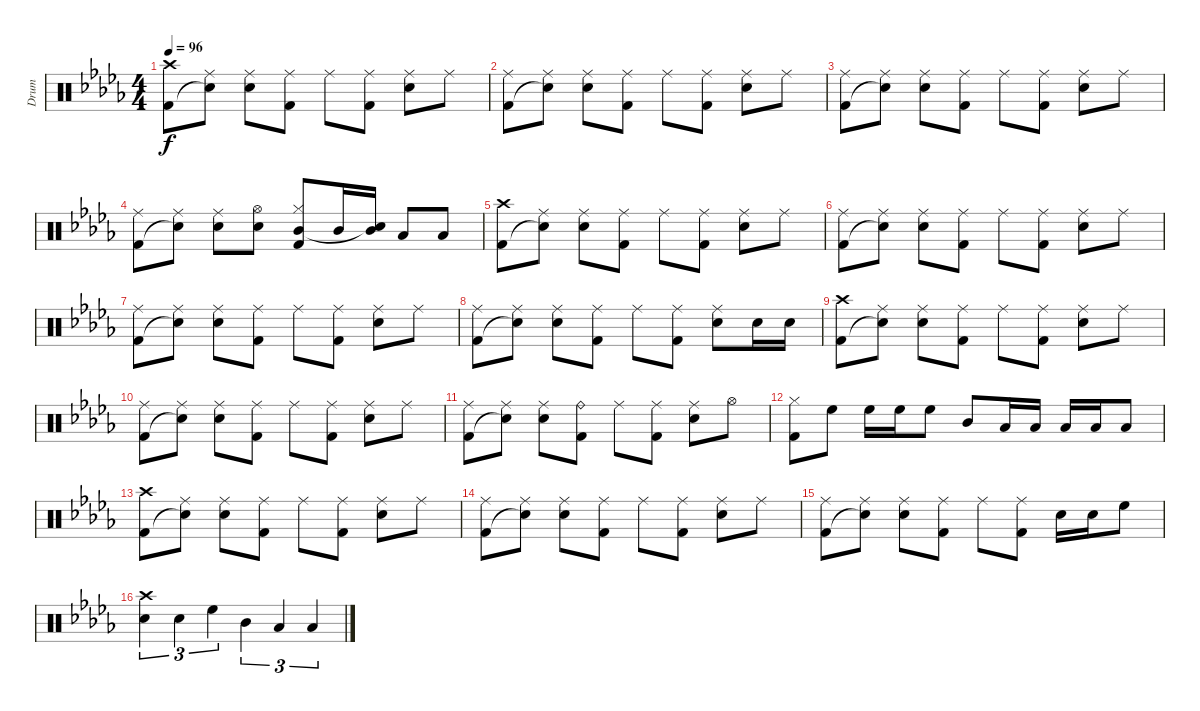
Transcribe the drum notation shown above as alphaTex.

\track ("Drum" "Drum") {instrument percussion}
\staff {score}
\articulation defaults
\ts (4 4)
\tempo 96
\clef neutral
\ks db
("Crash high (hit)" "Kick (hit) 2").8{dy f} ("Ride (middle)" "Snare (hit)"{t}).8 ("Ride (middle)" "Snare (hit) 2").8 ("Ride (middle)" "Kick (hit) 2").8 "Ride (middle)".8 ("Ride (middle)" "Kick (hit) 2").8 ("Ride (middle)" "Snare (hit) 2").8 "Ride (middle)".8 |
("Ride (middle)" "Kick (hit) 2").8 ("Ride (middle)" "Snare (hit)"{t}).8 ("Ride (middle)" "Snare (hit) 2").8 ("Ride (middle)" "Kick (hit) 2").8 "Ride (middle)".8 ("Ride (middle)" "Kick (hit) 2").8 ("Ride (middle)" "Snare (hit) 2").8 "Ride (middle)".8 |
("Ride (middle)" "Kick (hit) 2").8 ("Ride (middle)" "Snare (hit)"{t}).8 ("Ride (middle)" "Snare (hit) 2").8 ("Ride (middle)" "Kick (hit) 2").8 "Ride (middle)".8 ("Ride (middle)" "Kick (hit) 2").8 ("Ride (middle)" "Snare (hit) 2").8 "Ride (middle)".8 |
("Ride (middle)" "Kick (hit) 2").8 ("Ride (middle)" "Snare (hit)"{t}).8 ("Ride (middle)" "Snare (hit) 2").8 ("Hi-Hat (open)" "Snare (hit) 2").8 ("Hi-Hat (closed)" "Mid Tom (hit)" "Kick (hit) 2").8 "Mid Tom (hit)".16 ("Mid Tom (hit)" "Snare (hit)"{t}).16 "Low Tom (hit)".8 "Low Tom (hit)".8 |
("Crash high (hit)" "Kick (hit) 2").8 ("Ride (middle)" "Snare (hit)"{t}).8 ("Ride (middle)" "Snare (hit) 2").8 ("Ride (middle)" "Kick (hit) 2").8 "Ride (middle)".8 ("Ride (middle)" "Kick (hit) 2").8 ("Ride (middle)" "Snare (hit) 2").8 "Ride (middle)".8 |
("Ride (middle)" "Kick (hit) 2").8 ("Ride (middle)" "Snare (hit)"{t}).8 ("Ride (middle)" "Snare (hit) 2").8 ("Ride (middle)" "Kick (hit) 2").8 "Ride (middle)".8 ("Ride (middle)" "Kick (hit) 2").8 ("Ride (middle)" "Snare (hit) 2").8 "Ride (middle)".8 |
("Ride (middle)" "Kick (hit) 2").8 ("Ride (middle)" "Snare (hit)"{t}).8 ("Ride (middle)" "Snare (hit) 2").8 ("Ride (middle)" "Kick (hit) 2").8 "Ride (middle)".8 ("Ride (middle)" "Kick (hit) 2").8 ("Ride (middle)" "Snare (hit) 2").8 "Ride (middle)".8 |
("Ride (middle)" "Kick (hit) 2").8 ("Ride (middle)" "Snare (hit)"{t}).8 ("Ride (middle)" "Snare (hit) 2").8 ("Ride (middle)" "Kick (hit) 2").8 "Ride (middle)".8 ("Ride (middle)" "Kick (hit) 2").8 ("Ride (middle)" "Snare (hit) 2").8 "Snare (hit) 2".16 "Snare (hit) 2".16 |
("Crash high (hit)" "Kick (hit) 2").8 ("Ride (middle)" "Snare (hit)"{t}).8 ("Ride (middle)" "Snare (hit) 2").8 ("Ride (middle)" "Kick (hit) 2").8 "Ride (middle)".8 ("Ride (middle)" "Kick (hit) 2").8 ("Ride (middle)" "Snare (hit) 2").8 "Ride (middle)".8 |
("Ride (middle)" "Kick (hit) 2").8 ("Ride (middle)" "Snare (hit)"{t}).8 ("Ride (middle)" "Snare (hit) 2").8 ("Ride (middle)" "Kick (hit) 2").8 "Ride (middle)".8 ("Ride (middle)" "Kick (hit) 2").8 ("Ride (middle)" "Snare (hit) 2").8 "Ride (middle)".8 |
("Ride (middle)" "Kick (hit) 2").8 ("Ride (middle)" "Snare (hit)"{t}).8 ("Ride (middle)" "Snare (hit) 2").8 ("Ride (bell)" "Kick (hit) 2").8 "Ride (middle)".8 ("Ride (middle)" "Kick (hit) 2").8 ("Ride (middle)" "Snare (hit) 2").8 "Hi-Hat (open)".8 |
("Hi-Hat (closed)" "Kick (hit) 2").8 "High Floor Tom (hit)".8 "High Floor Tom (hit)".16 "High Floor Tom (hit)".16 "High Floor Tom (hit)".8 "Mid Tom (hit)".8 "Low Tom (hit)".16 "Low Tom (hit)".16 "Low Floor Tom (hit)".16 "Low Floor Tom (hit)".16 "Low Floor Tom (hit)".8 |
("Crash high (hit)" "Kick (hit) 2").8 ("Ride (middle)" "Snare (hit)"{t}).8 ("Ride (middle)" "Snare (hit) 2").8 ("Ride (middle)" "Kick (hit) 2").8 "Ride (middle)".8 ("Ride (middle)" "Kick (hit) 2").8 ("Ride (middle)" "Snare (hit) 2").8 "Ride (middle)".8 |
("Ride (middle)" "Kick (hit) 2").8 ("Ride (middle)" "Snare (hit)"{t}).8 ("Ride (middle)" "Snare (hit) 2").8 ("Ride (middle)" "Kick (hit) 2").8 "Ride (middle)".8 ("Ride (middle)" "Kick (hit) 2").8 ("Ride (middle)" "Snare (hit) 2").8 "Ride (middle)".8 |
("Ride (middle)" "Kick (hit) 2").8 ("Ride (middle)" "Snare (hit)"{t}).8 ("Ride (middle)" "Snare (hit) 2").8 ("Ride (middle)" "Kick (hit) 2").8 "Ride (middle)".8 ("Ride (middle)" "Kick (hit) 2").8 "Snare (hit) 2".16 "Snare (hit) 2".16 "High Floor Tom (hit)".8 |
("Crash high (hit)" "Snare (hit) 2").4{tu (3 2)} "Snare (hit) 2".4{tu (3 2)} "High Floor Tom (hit)".4{tu (3 2)} "Mid Tom (hit)".4{tu (3 2)} "Low Tom (hit)".4{tu (3 2)} "Low Floor Tom (hit)".4{tu (3 2)}
